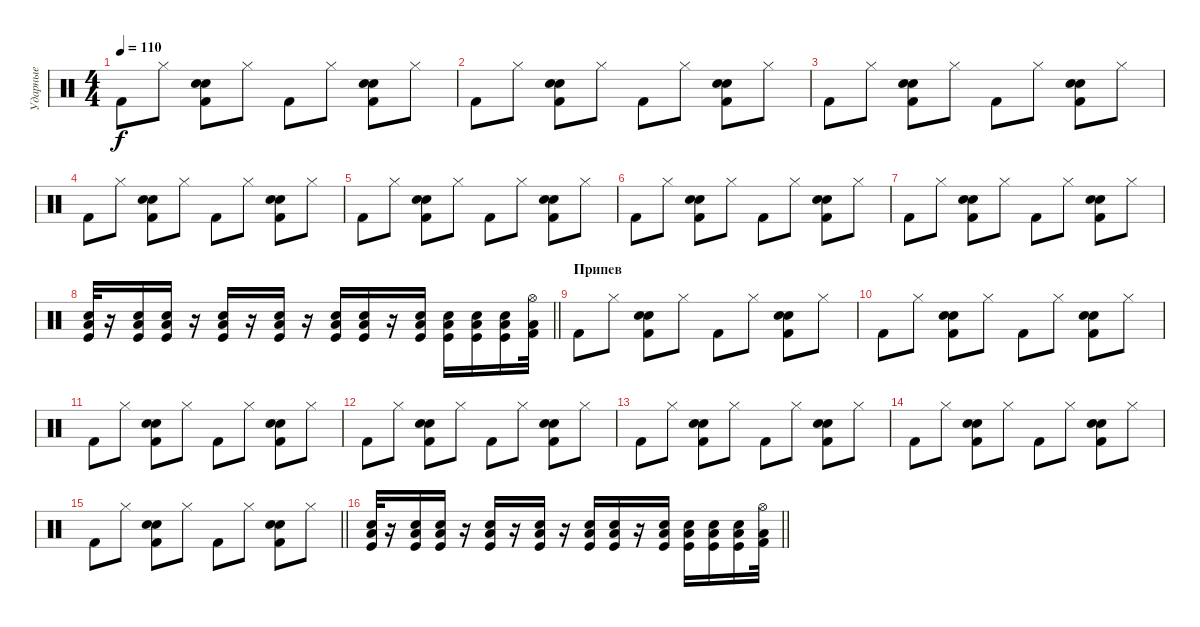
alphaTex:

\track ("Ударные" "Ударные") {instrument percussion}
\staff {score}
\articulation defaults
\ts (4 4)
\tempo 110
\clef neutral
\ks c "Kick (hit) 2".8{dy f} "Hi-Hat (closed)".8
("Hand Clap (hit)" "Kick (hit) 2" "Electric Snare (hit)").8 "Hi-Hat (closed)".8 "Kick (hit) 2".8 "Hi-Hat (closed)".8 ("Hand Clap (hit)" "Kick (hit) 2" "Electric Snare (hit)").8 "Hi-Hat (closed)".8 |
"Kick (hit) 2".8 "Hi-Hat (closed)".8 ("Hand Clap (hit)" "Kick (hit) 2" "Electric Snare (hit)").8 "Hi-Hat (closed)".8 "Kick (hit) 2".8 "Hi-Hat (closed)".8 ("Hand Clap (hit)" "Kick (hit) 2" "Electric Snare (hit)").8 "Hi-Hat (closed)".8 |
"Kick (hit) 2".8 "Hi-Hat (closed)".8 ("Hand Clap (hit)" "Kick (hit) 2" "Electric Snare (hit)").8 "Hi-Hat (closed)".8 "Kick (hit) 2".8 "Hi-Hat (closed)".8 ("Hand Clap (hit)" "Kick (hit) 2" "Electric Snare (hit)").8 "Hi-Hat (closed)".8 |
"Kick (hit) 2".8 "Hi-Hat (closed)".8 ("Hand Clap (hit)" "Kick (hit) 2" "Electric Snare (hit)").8 "Hi-Hat (closed)".8 "Kick (hit) 2".8 "Hi-Hat (closed)".8 ("Hand Clap (hit)" "Kick (hit) 2" "Electric Snare (hit)").8 "Hi-Hat (closed)".8 |
"Kick (hit) 2".8 "Hi-Hat (closed)".8 ("Hand Clap (hit)" "Kick (hit) 2" "Electric Snare (hit)").8 "Hi-Hat (closed)".8 "Kick (hit) 2".8 "Hi-Hat (closed)".8 ("Hand Clap (hit)" "Kick (hit) 2" "Electric Snare (hit)").8 "Hi-Hat (closed)".8 |
"Kick (hit) 2".8 "Hi-Hat (closed)".8 ("Hand Clap (hit)" "Kick (hit) 2" "Electric Snare (hit)").8 "Hi-Hat (closed)".8 "Kick (hit) 2".8 "Hi-Hat (closed)".8 ("Hand Clap (hit)" "Kick (hit) 2" "Electric Snare (hit)").8 "Hi-Hat (closed)".8 |
"Kick (hit) 2".8 "Hi-Hat (closed)".8 ("Hand Clap (hit)" "Kick (hit) 2" "Electric Snare (hit)").8 "Hi-Hat (closed)".8 "Kick (hit) 2".8 "Hi-Hat (closed)".8 ("Hand Clap (hit)" "Kick (hit) 2" "Electric Snare (hit)").8 "Hi-Hat (closed)".8 |
\barLineRight lightlight
("Low Floor Tom (hit)" "Kick (hit)" "Electric Snare (hit)").32 r.16 ("Low Floor Tom (hit)" "Kick (hit)" "Electric Snare (hit)").16 ("Low Floor Tom (hit)" "Kick (hit)" "Electric Snare (hit)").16 r.16 ("Low Floor Tom (hit)" "Kick (hit)" "Electric Snare (hit)").16 r.16 ("Low Floor Tom (hit)" "Kick (hit)" "Electric Snare (hit)").16 r.16 ("Low Floor Tom (hit)" "Kick (hit)" "Electric Snare (hit)").16 ("Low Floor Tom (hit)" "Kick (hit)" "Electric Snare (hit)").16 r.16 ("Low Floor Tom (hit)" "Kick (hit)" "Electric Snare (hit)").16 ("Low Floor Tom (hit)" "Kick (hit)" "Electric Snare (hit)").16 ("Low Floor Tom (hit)" "Kick (hit)" "Electric Snare (hit)").16 ("Low Floor Tom (hit)" "Kick (hit)" "Electric Snare (hit)").16 ("Low Floor Tom (hit)" "Hi-Hat (open)" "Kick (hit) 2").32 |
\section ("" "Припев")
"Kick (hit) 2".8 "Hi-Hat (closed)".8 ("Hand Clap (hit)" "Kick (hit) 2" "Electric Snare (hit)").8 "Hi-Hat (closed)".8 "Kick (hit) 2".8 "Hi-Hat (closed)".8 ("Hand Clap (hit)" "Kick (hit) 2" "Electric Snare (hit)").8 "Hi-Hat (closed)".8 |
"Kick (hit) 2".8 "Hi-Hat (closed)".8 ("Hand Clap (hit)" "Kick (hit) 2" "Electric Snare (hit)").8 "Hi-Hat (closed)".8 "Kick (hit) 2".8 "Hi-Hat (closed)".8 ("Hand Clap (hit)" "Kick (hit) 2" "Electric Snare (hit)").8 "Hi-Hat (closed)".8 |
"Kick (hit) 2".8 "Hi-Hat (closed)".8 ("Hand Clap (hit)" "Kick (hit) 2" "Electric Snare (hit)").8 "Hi-Hat (closed)".8 "Kick (hit) 2".8 "Hi-Hat (closed)".8 ("Hand Clap (hit)" "Kick (hit) 2" "Electric Snare (hit)").8 "Hi-Hat (closed)".8 |
"Kick (hit) 2".8 "Hi-Hat (closed)".8 ("Hand Clap (hit)" "Kick (hit) 2" "Electric Snare (hit)").8 "Hi-Hat (closed)".8 "Kick (hit) 2".8 "Hi-Hat (closed)".8 ("Hand Clap (hit)" "Kick (hit) 2" "Electric Snare (hit)").8 "Hi-Hat (closed)".8 |
"Kick (hit) 2".8 "Hi-Hat (closed)".8 ("Hand Clap (hit)" "Kick (hit) 2" "Electric Snare (hit)").8 "Hi-Hat (closed)".8 "Kick (hit) 2".8 "Hi-Hat (closed)".8 ("Hand Clap (hit)" "Kick (hit) 2" "Electric Snare (hit)").8 "Hi-Hat (closed)".8 |
"Kick (hit) 2".8 "Hi-Hat (closed)".8 ("Hand Clap (hit)" "Kick (hit) 2" "Electric Snare (hit)").8 "Hi-Hat (closed)".8 "Kick (hit) 2".8 "Hi-Hat (closed)".8 ("Hand Clap (hit)" "Kick (hit) 2" "Electric Snare (hit)").8 "Hi-Hat (closed)".8 |
\barLineRight lightlight "Kick (hit) 2".8 "Hi-Hat (closed)".8
("Hand Clap (hit)" "Kick (hit) 2" "Electric Snare (hit)").8 "Hi-Hat (closed)".8 "Kick (hit) 2".8 "Hi-Hat (closed)".8 ("Hand Clap (hit)" "Kick (hit) 2" "Electric Snare (hit)").8 "Hi-Hat (closed)".8 |
\barLineRight lightlight
("Low Floor Tom (hit)" "Kick (hit)" "Electric Snare (hit)").32 r.16 ("Low Floor Tom (hit)" "Kick (hit)" "Electric Snare (hit)").16 ("Low Floor Tom (hit)" "Kick (hit)" "Electric Snare (hit)").16 r.16 ("Low Floor Tom (hit)" "Kick (hit)" "Electric Snare (hit)").16 r.16 ("Low Floor Tom (hit)" "Kick (hit)" "Electric Snare (hit)").16 r.16 ("Low Floor Tom (hit)" "Kick (hit)" "Electric Snare (hit)").16 ("Low Floor Tom (hit)" "Kick (hit)" "Electric Snare (hit)").16 r.16 ("Low Floor Tom (hit)" "Kick (hit)" "Electric Snare (hit)").16 ("Low Floor Tom (hit)" "Kick (hit)" "Electric Snare (hit)").16 ("Low Floor Tom (hit)" "Kick (hit)" "Electric Snare (hit)").16 ("Low Floor Tom (hit)" "Kick (hit)" "Electric Snare (hit)").16 ("Low Floor Tom (hit)" "Hi-Hat (open)" "Kick (hit) 2").32
